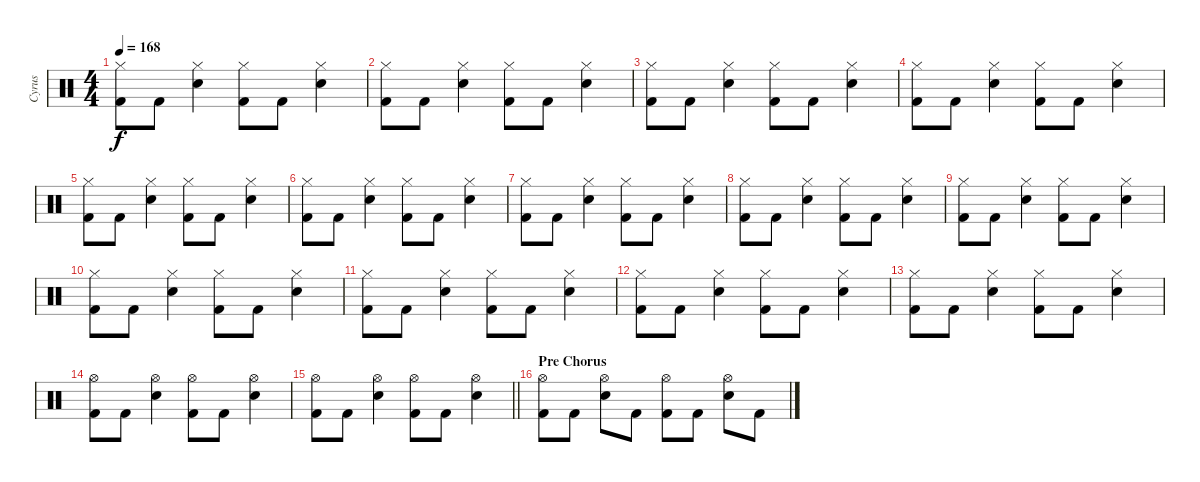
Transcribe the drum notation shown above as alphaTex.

\track ("Cyrus" "Cyrus") {instrument percussion}
\staff {score}
\articulation defaults
\ts (4 4)
\tempo 168
\clef neutral
\ks c
("Hi-Hat (closed)" "Kick (hit) 2").8{dy f} "Kick (hit) 2".8 ("Hi-Hat (closed)" "Snare (hit) 2").4 ("Hi-Hat (closed)" "Kick (hit) 2").8 "Kick (hit) 2".8 ("Hi-Hat (closed)" "Snare (hit) 2").4 |
("Hi-Hat (closed)" "Kick (hit) 2").8 "Kick (hit) 2".8 ("Hi-Hat (closed)" "Snare (hit) 2").4 ("Hi-Hat (closed)" "Kick (hit) 2").8 "Kick (hit) 2".8 ("Hi-Hat (closed)" "Snare (hit) 2").4 |
("Hi-Hat (closed)" "Kick (hit) 2").8 "Kick (hit) 2".8 ("Hi-Hat (closed)" "Snare (hit) 2").4 ("Hi-Hat (closed)" "Kick (hit) 2").8 "Kick (hit) 2".8 ("Hi-Hat (closed)" "Snare (hit) 2").4 |
("Hi-Hat (closed)" "Kick (hit) 2").8 "Kick (hit) 2".8 ("Hi-Hat (closed)" "Snare (hit) 2").4 ("Hi-Hat (closed)" "Kick (hit) 2").8 "Kick (hit) 2".8 ("Hi-Hat (closed)" "Snare (hit) 2").4 |
("Hi-Hat (closed)" "Kick (hit) 2").8 "Kick (hit) 2".8 ("Hi-Hat (closed)" "Snare (hit) 2").4 ("Hi-Hat (closed)" "Kick (hit) 2").8 "Kick (hit) 2".8 ("Hi-Hat (closed)" "Snare (hit) 2").4 |
("Hi-Hat (closed)" "Kick (hit) 2").8 "Kick (hit) 2".8 ("Hi-Hat (closed)" "Snare (hit) 2").4 ("Hi-Hat (closed)" "Kick (hit) 2").8 "Kick (hit) 2".8 ("Hi-Hat (closed)" "Snare (hit) 2").4 |
("Hi-Hat (closed)" "Kick (hit) 2").8 "Kick (hit) 2".8 ("Hi-Hat (closed)" "Snare (hit) 2").4 ("Hi-Hat (closed)" "Kick (hit) 2").8 "Kick (hit) 2".8 ("Hi-Hat (closed)" "Snare (hit) 2").4 |
("Hi-Hat (closed)" "Kick (hit) 2").8 "Kick (hit) 2".8 ("Hi-Hat (closed)" "Snare (hit) 2").4 ("Hi-Hat (closed)" "Kick (hit) 2").8 "Kick (hit) 2".8 ("Hi-Hat (closed)" "Snare (hit) 2").4 |
("Hi-Hat (closed)" "Kick (hit) 2").8 "Kick (hit) 2".8 ("Hi-Hat (closed)" "Snare (hit) 2").4 ("Hi-Hat (closed)" "Kick (hit) 2").8 "Kick (hit) 2".8 ("Hi-Hat (closed)" "Snare (hit) 2").4 |
("Hi-Hat (closed)" "Kick (hit) 2").8 "Kick (hit) 2".8 ("Hi-Hat (closed)" "Snare (hit) 2").4 ("Hi-Hat (closed)" "Kick (hit) 2").8 "Kick (hit) 2".8 ("Hi-Hat (closed)" "Snare (hit) 2").4 |
("Hi-Hat (closed)" "Kick (hit) 2").8 "Kick (hit) 2".8 ("Hi-Hat (closed)" "Snare (hit) 2").4 ("Hi-Hat (closed)" "Kick (hit) 2").8 "Kick (hit) 2".8 ("Hi-Hat (closed)" "Snare (hit) 2").4 |
("Hi-Hat (closed)" "Kick (hit) 2").8 "Kick (hit) 2".8 ("Hi-Hat (closed)" "Snare (hit) 2").4 ("Hi-Hat (closed)" "Kick (hit) 2").8 "Kick (hit) 2".8 ("Hi-Hat (closed)" "Snare (hit) 2").4 |
("Hi-Hat (closed)" "Kick (hit) 2").8 "Kick (hit) 2".8 ("Hi-Hat (closed)" "Snare (hit) 2").4 ("Hi-Hat (closed)" "Kick (hit) 2").8 "Kick (hit) 2".8 ("Hi-Hat (closed)" "Snare (hit) 2").4 |
("Hi-Hat (open)" "Kick (hit) 2").8 "Kick (hit) 2".8 ("Hi-Hat (open)" "Snare (hit) 2").4 ("Hi-Hat (open)" "Kick (hit) 2").8 "Kick (hit) 2".8 ("Hi-Hat (open)" "Snare (hit) 2").4 |
\barLineRight lightlight
("Hi-Hat (open)" "Kick (hit) 2").8 "Kick (hit) 2".8 ("Hi-Hat (open)" "Snare (hit) 2").4 ("Hi-Hat (open)" "Kick (hit) 2").8 "Kick (hit) 2".8 ("Hi-Hat (open)" "Snare (hit) 2").4 |
\section ("" "Pre Chorus")
("Hi-Hat (open)" "Kick (hit) 2").8 "Kick (hit) 2".8 ("Hi-Hat (open)" "Snare (hit) 2").8 "Kick (hit) 2".8 ("Hi-Hat (open)" "Kick (hit) 2").8 "Kick (hit) 2".8 ("Hi-Hat (open)" "Snare (hit) 2").8 "Kick (hit) 2".8
